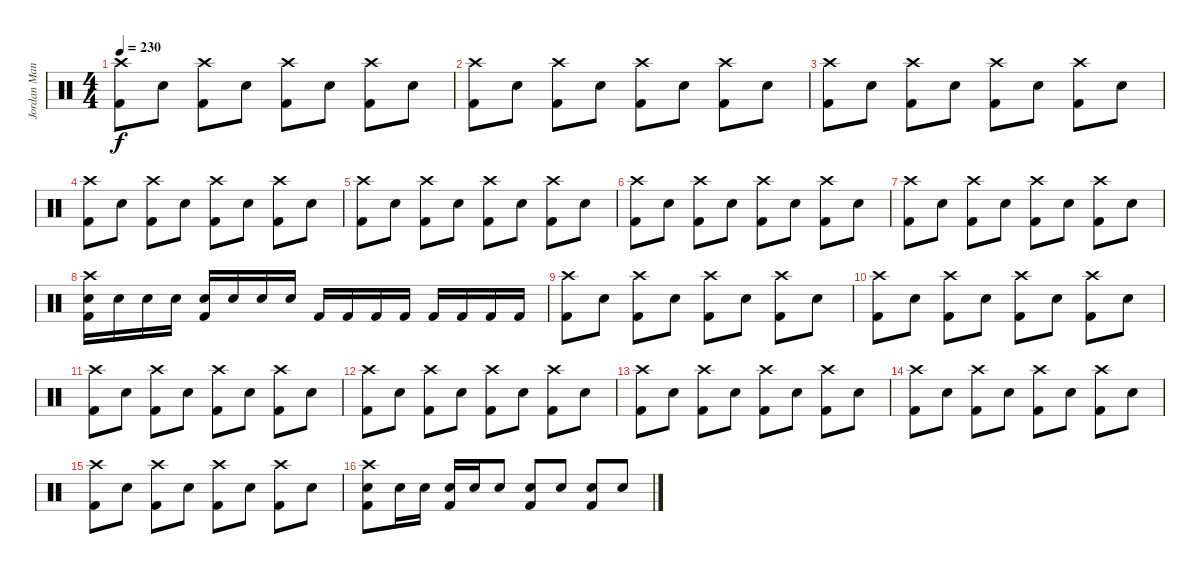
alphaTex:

\track ("Jordan Mancino" "Jordan Man") {instrument percussion}
\staff {score}
\articulation defaults
\ts (4 4)
\tempo 230
\clef neutral
\ks c
("Crash high (hit)" "Kick (hit) 2").8{dy f} "Electric Snare (hit)".8 ("Crash high (hit)" "Kick (hit) 2").8 "Electric Snare (hit)".8 ("Crash high (hit)" "Kick (hit) 2").8 "Electric Snare (hit)".8 ("Crash high (hit)" "Kick (hit) 2").8 "Electric Snare (hit)".8 |
("Crash high (hit)" "Kick (hit) 2").8 "Electric Snare (hit)".8 ("Crash high (hit)" "Kick (hit) 2").8 "Electric Snare (hit)".8 ("Crash high (hit)" "Kick (hit) 2").8 "Electric Snare (hit)".8 ("Crash high (hit)" "Kick (hit) 2").8 "Electric Snare (hit)".8 |
("Crash high (hit)" "Kick (hit) 2").8 "Electric Snare (hit)".8 ("Crash high (hit)" "Kick (hit) 2").8 "Electric Snare (hit)".8 ("Crash high (hit)" "Kick (hit) 2").8 "Electric Snare (hit)".8 ("Crash high (hit)" "Kick (hit) 2").8 "Electric Snare (hit)".8 |
("Crash high (hit)" "Kick (hit) 2").8 "Electric Snare (hit)".8 ("Crash high (hit)" "Kick (hit) 2").8 "Electric Snare (hit)".8 ("Crash high (hit)" "Kick (hit) 2").8 "Electric Snare (hit)".8 ("Crash high (hit)" "Kick (hit) 2").8 "Electric Snare (hit)".8 |
("Crash high (hit)" "Kick (hit) 2").8 "Electric Snare (hit)".8 ("Crash high (hit)" "Kick (hit) 2").8 "Electric Snare (hit)".8 ("Crash high (hit)" "Kick (hit) 2").8 "Electric Snare (hit)".8 ("Crash high (hit)" "Kick (hit) 2").8 "Electric Snare (hit)".8 |
("Crash high (hit)" "Kick (hit) 2").8 "Electric Snare (hit)".8 ("Crash high (hit)" "Kick (hit) 2").8 "Electric Snare (hit)".8 ("Crash high (hit)" "Kick (hit) 2").8 "Electric Snare (hit)".8 ("Crash high (hit)" "Kick (hit) 2").8 "Electric Snare (hit)".8 |
("Crash high (hit)" "Kick (hit) 2").8 "Electric Snare (hit)".8 ("Crash high (hit)" "Kick (hit) 2").8 "Electric Snare (hit)".8 ("Crash high (hit)" "Kick (hit) 2").8 "Electric Snare (hit)".8 ("Crash high (hit)" "Kick (hit) 2").8 "Electric Snare (hit)".8 |
("Crash high (hit)" "Electric Snare (hit)" "Kick (hit) 2").16 "Electric Snare (hit)".16 "Electric Snare (hit)".16 "Electric Snare (hit)".16 ("Electric Snare (hit)" "Kick (hit) 2").16 "Electric Snare (hit)".16 "Electric Snare (hit)".16 "Electric Snare (hit)".16 "Kick (hit) 2".16 "Kick (hit) 2".16 "Kick (hit) 2".16 "Kick (hit) 2".16 "Kick (hit) 2".16 "Kick (hit) 2".16 "Kick (hit) 2".16 "Kick (hit) 2".16 |
("Crash high (hit)" "Kick (hit) 2").8 "Electric Snare (hit)".8 ("Crash high (hit)" "Kick (hit) 2").8 "Electric Snare (hit)".8 ("Crash high (hit)" "Kick (hit) 2").8 "Electric Snare (hit)".8 ("Crash high (hit)" "Kick (hit) 2").8 "Electric Snare (hit)".8 |
("Crash high (hit)" "Kick (hit) 2").8 "Electric Snare (hit)".8 ("Crash high (hit)" "Kick (hit) 2").8 "Electric Snare (hit)".8 ("Crash high (hit)" "Kick (hit) 2").8 "Electric Snare (hit)".8 ("Crash high (hit)" "Kick (hit) 2").8 "Electric Snare (hit)".8 |
("Crash high (hit)" "Kick (hit) 2").8 "Electric Snare (hit)".8 ("Crash high (hit)" "Kick (hit) 2").8 "Electric Snare (hit)".8 ("Crash high (hit)" "Kick (hit) 2").8 "Electric Snare (hit)".8 ("Crash high (hit)" "Kick (hit) 2").8 "Electric Snare (hit)".8 |
("Crash high (hit)" "Kick (hit) 2").8 "Electric Snare (hit)".8 ("Crash high (hit)" "Kick (hit) 2").8 "Electric Snare (hit)".8 ("Crash high (hit)" "Kick (hit) 2").8 "Electric Snare (hit)".8 ("Crash high (hit)" "Kick (hit) 2").8 "Electric Snare (hit)".8 |
("Crash high (hit)" "Kick (hit) 2").8 "Electric Snare (hit)".8 ("Crash high (hit)" "Kick (hit) 2").8 "Electric Snare (hit)".8 ("Crash high (hit)" "Kick (hit) 2").8 "Electric Snare (hit)".8 ("Crash high (hit)" "Kick (hit) 2").8 "Electric Snare (hit)".8 |
("Crash high (hit)" "Kick (hit) 2").8 "Electric Snare (hit)".8 ("Crash high (hit)" "Kick (hit) 2").8 "Electric Snare (hit)".8 ("Crash high (hit)" "Kick (hit) 2").8 "Electric Snare (hit)".8 ("Crash high (hit)" "Kick (hit) 2").8 "Electric Snare (hit)".8 |
("Crash high (hit)" "Kick (hit) 2").8 "Electric Snare (hit)".8 ("Crash high (hit)" "Kick (hit) 2").8 "Electric Snare (hit)".8 ("Crash high (hit)" "Kick (hit) 2").8 "Electric Snare (hit)".8 ("Crash high (hit)" "Kick (hit) 2").8 "Electric Snare (hit)".8 |
("Crash high (hit)" "Electric Snare (hit)" "Kick (hit) 2").8 "Electric Snare (hit)".16 "Electric Snare (hit)".16 ("Electric Snare (hit)" "Kick (hit) 2").16 "Electric Snare (hit)".16 "Electric Snare (hit)".8 ("Electric Snare (hit)" "Kick (hit) 2").8 "Electric Snare (hit)".8 ("Electric Snare (hit)" "Kick (hit) 2").8 "Electric Snare (hit)".8
